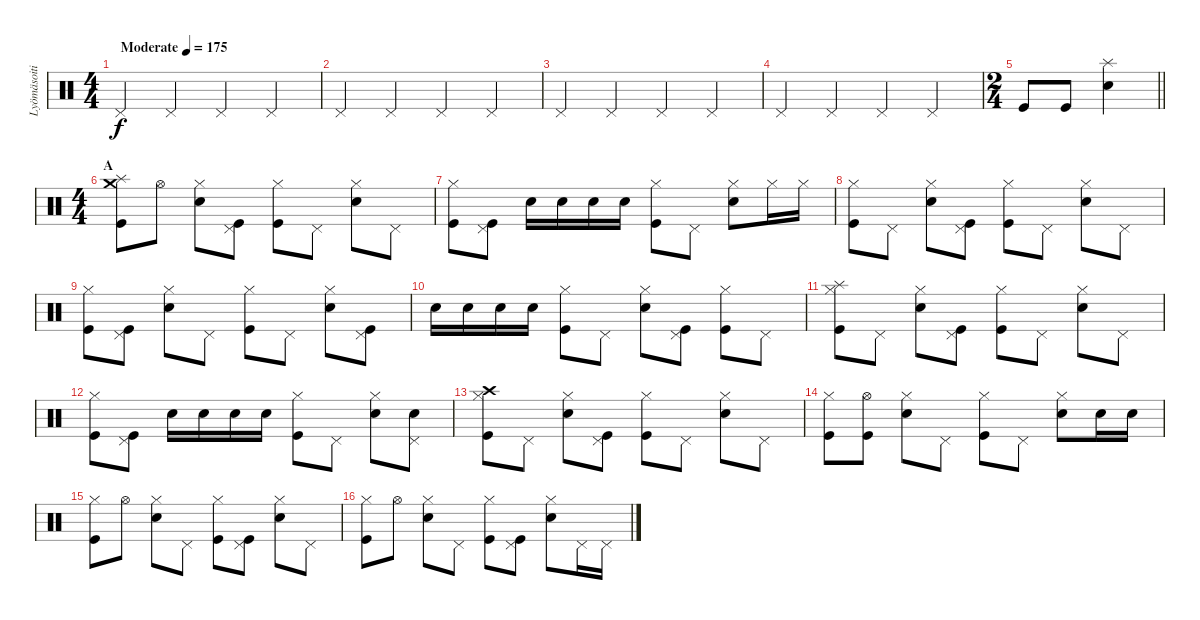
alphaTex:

\track ("Lyömäsoitin" "Lyömäsoiti") {instrument percussion}
\staff {score}
\articulation defaults
\ts (4 4)
\tempo (175 "Moderate")
\clef neutral
\ks c "Pedal Hi-Hat (hit)".4{dy f} "Pedal Hi-Hat (hit)".4 "Pedal Hi-Hat (hit)".4 "Pedal Hi-Hat (hit)".4
|
"Pedal Hi-Hat (hit)".4 "Pedal Hi-Hat (hit)".4 "Pedal Hi-Hat (hit)".4 "Pedal Hi-Hat (hit)".4 |
"Pedal Hi-Hat (hit)".4 "Pedal Hi-Hat (hit)".4 "Pedal Hi-Hat (hit)".4 "Pedal Hi-Hat (hit)".4 |
"Pedal Hi-Hat (hit)".4 "Pedal Hi-Hat (hit)".4 "Pedal Hi-Hat (hit)".4 "Pedal Hi-Hat (hit)".4 |
\ts (2 4)
\barLineRight lightlight "Kick (hit)".8 "Kick (hit)".8
("Splash (hit)" "Snare (hit) 2").4 |
\ts (4 4)
\section ("" "A")
("Crash medium (hit)" "Splash (hit)" "Kick (hit)").8 "Hi-Hat (open)".8 ("Hi-Hat (closed)" "Snare (hit) 2").8 ("Pedal Hi-Hat (hit)" "Kick (hit)").8 ("Hi-Hat (closed)" "Kick (hit)").8 "Pedal Hi-Hat (hit)".8 ("Hi-Hat (closed)" "Snare (hit) 2").8 "Pedal Hi-Hat (hit)".8 |
("Hi-Hat (closed)" "Kick (hit)").8 ("Pedal Hi-Hat (hit)" "Kick (hit)").8 "Snare (hit) 2".16 "Snare (hit) 2".16 "Snare (hit) 2".16 "Snare (hit) 2".16 ("Hi-Hat (closed)" "Kick (hit)").8 "Pedal Hi-Hat (hit)".8 ("Hi-Hat (closed)" "Snare (hit) 2").8 "Hi-Hat (closed)".16 "Hi-Hat (closed)".16 |
("Hi-Hat (closed)" "Kick (hit)").8 "Pedal Hi-Hat (hit)".8 ("Hi-Hat (closed)" "Snare (hit) 2").8 ("Pedal Hi-Hat (hit)" "Kick (hit)").8 ("Hi-Hat (closed)" "Kick (hit)").8 "Pedal Hi-Hat (hit)".8 ("Hi-Hat (closed)" "Snare (hit) 2").8 "Pedal Hi-Hat (hit)".8 |
("Hi-Hat (closed)" "Kick (hit)").8 ("Pedal Hi-Hat (hit)" "Kick (hit)").8 ("Hi-Hat (closed)" "Snare (hit) 2").8 "Pedal Hi-Hat (hit)".8 ("Hi-Hat (closed)" "Kick (hit)").8 "Pedal Hi-Hat (hit)".8 ("Hi-Hat (closed)" "Snare (hit) 2").8 ("Pedal Hi-Hat (hit)" "Kick (hit)").8 |
"Snare (hit) 2".16 "Snare (hit) 2".16 "Snare (hit) 2".16 "Snare (hit) 2".16 ("Hi-Hat (closed)" "Kick (hit)").8 "Pedal Hi-Hat (hit)".8 ("Hi-Hat (closed)" "Snare (hit) 2").8 ("Pedal Hi-Hat (hit)" "Kick (hit)").8 ("Hi-Hat (closed)" "Kick (hit)").8 "Pedal Hi-Hat (hit)".8 |
("Splash (hit)" "Hi-Hat (closed)" "Kick (hit)").8 "Pedal Hi-Hat (hit)".8 ("Hi-Hat (closed)" "Snare (hit) 2").8 ("Pedal Hi-Hat (hit)" "Kick (hit)").8 ("Hi-Hat (closed)" "Kick (hit)").8 "Pedal Hi-Hat (hit)".8 ("Hi-Hat (closed)" "Snare (hit) 2").8 "Pedal Hi-Hat (hit)".8 |
("Hi-Hat (closed)" "Kick (hit)").8 ("Pedal Hi-Hat (hit)" "Kick (hit)").8 "Snare (hit) 2".16 "Snare (hit) 2".16 "Snare (hit) 2".16 "Snare (hit) 2".16 ("Hi-Hat (closed)" "Kick (hit)").8 "Pedal Hi-Hat (hit)".8 ("Hi-Hat (closed)" "Snare (hit) 2").8 ("Pedal Hi-Hat (hit)" "Snare (hit) 2").8 |
("Crash high (hit)" "Hi-Hat (closed)" "Kick (hit)").8 "Pedal Hi-Hat (hit)".8 ("Hi-Hat (closed)" "Snare (hit) 2").8 ("Pedal Hi-Hat (hit)" "Kick (hit)").8 ("Hi-Hat (closed)" "Kick (hit)").8 "Pedal Hi-Hat (hit)".8 ("Hi-Hat (closed)" "Snare (hit) 2").8 "Pedal Hi-Hat (hit)".8 |
("Hi-Hat (closed)" "Kick (hit)").8 ("Hi-Hat (open)" "Kick (hit)").8 ("Hi-Hat (closed)" "Snare (hit) 2").8 "Pedal Hi-Hat (hit)".8 ("Hi-Hat (closed)" "Kick (hit)").8 "Pedal Hi-Hat (hit)".8 ("Hi-Hat (closed)" "Snare (hit) 2").8 "Snare (hit) 2".16 "Snare (hit) 2".16 |
("Hi-Hat (closed)" "Kick (hit)").8 "Hi-Hat (open)".8 ("Hi-Hat (closed)" "Snare (hit) 2").8 "Pedal Hi-Hat (hit)".8 ("Hi-Hat (closed)" "Kick (hit)").8 ("Pedal Hi-Hat (hit)" "Kick (hit)").8 ("Hi-Hat (closed)" "Snare (hit) 2").8 "Pedal Hi-Hat (hit)".8 |
("Hi-Hat (closed)" "Kick (hit)").8 "Hi-Hat (open)".8 ("Hi-Hat (closed)" "Snare (hit) 2").8 "Pedal Hi-Hat (hit)".8 ("Hi-Hat (closed)" "Kick (hit)").8 ("Pedal Hi-Hat (hit)" "Kick (hit)").8 ("Hi-Hat (closed)" "Snare (hit) 2").8 "Pedal Hi-Hat (hit)".16 "Pedal Hi-Hat (hit)".16
